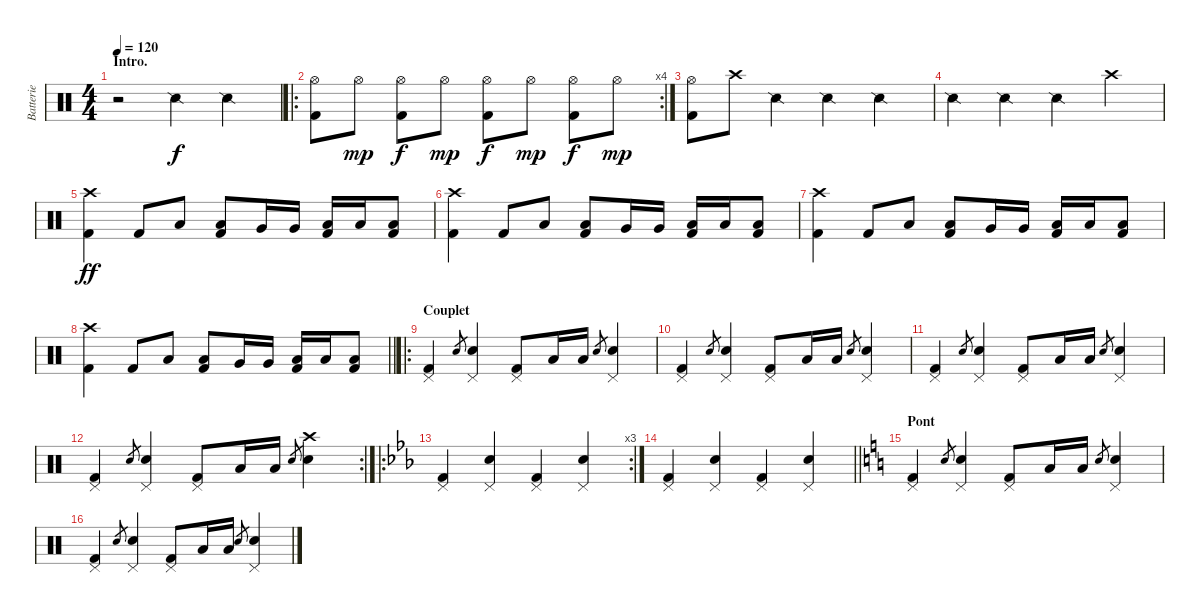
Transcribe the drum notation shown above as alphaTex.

\track ("Batterie" "Batterie") {instrument percussion}
\staff {score}
\articulation defaults
\ts (4 4)
\section ("" "Intro.")
\tempo 120
\clef neutral
\ks c
r.2{dy f} "Snare (side stick) 2".4 "Snare (side stick) 2".4 |
\ro
\rc 4
("Hi-Hat (open)" "Kick (hit) 2").8 "Hi-Hat (open)".8{dy mp} ("Hi-Hat (open)" "Kick (hit) 2").8{dy f} "Hi-Hat (open)".8{dy mp} ("Hi-Hat (open)" "Kick (hit) 2").8{dy f} "Hi-Hat (open)".8{dy mp} ("Hi-Hat (open)" "Kick (hit) 2").8{dy f} "Hi-Hat (open)".8{dy mp} |
("Hi-Hat (open)" "Kick (hit) 2").8 "Crash high (hit)".8 "Snare (side stick) 2".4 "Snare (side stick) 2".4 "Snare (side stick) 2".4 |
"Snare (side stick) 2".4 "Snare (side stick) 2".4 "Snare (side stick) 2".4 "Crash high (hit)".4 |
("Crash high (hit)" "Kick (hit) 2").4{dy ff} "Kick (hit) 2".8 "Low Tom (hit)".8 ("Low Tom (hit)" "Kick (hit) 2").8 "Very Low Tom (hit)".16 "Very Low Tom (hit)".16 ("Low Floor Tom (hit)" "Kick (hit) 2").16 "Low Floor Tom (hit)".16 ("Low Floor Tom (hit)" "Kick (hit) 2").8 |
("Crash high (hit)" "Kick (hit) 2").4 "Kick (hit) 2".8 "Low Tom (hit)".8 ("Low Tom (hit)" "Kick (hit) 2").8 "Very Low Tom (hit)".16 "Very Low Tom (hit)".16 ("Low Floor Tom (hit)" "Kick (hit) 2").16 "Low Floor Tom (hit)".16 ("Low Floor Tom (hit)" "Kick (hit) 2").8 |
("Crash high (hit)" "Kick (hit) 2").4 "Kick (hit) 2".8 "Low Tom (hit)".8 ("Low Tom (hit)" "Kick (hit) 2").8 "Very Low Tom (hit)".16 "Very Low Tom (hit)".16 ("Low Floor Tom (hit)" "Kick (hit) 2").16 "Low Floor Tom (hit)".16 ("Low Floor Tom (hit)" "Kick (hit) 2").8 |
\barLineRight lightlight
("Crash high (hit)" "Kick (hit) 2").4 "Kick (hit) 2".8 "Low Tom (hit)".8 ("Low Tom (hit)" "Kick (hit) 2").8 "Very Low Tom (hit)".16 "Very Low Tom (hit)".16 ("Low Floor Tom (hit)" "Kick (hit) 2").16 "Low Floor Tom (hit)".16 ("Low Floor Tom (hit)" "Kick (hit) 2").8 |
\ro
\section ("" "Couplet")
("Pedal Hi-Hat (hit)" "Kick (hit) 2").4 "Electric Snare (hit)".8{gr} ("Pedal Hi-Hat (hit)" "Electric Snare (hit)").4 ("Pedal Hi-Hat (hit)" "Kick (hit) 2").8 "Low Floor Tom (hit)".16 "Low Floor Tom (hit)".16 "Electric Snare (hit)".8{gr} ("Pedal Hi-Hat (hit)" "Electric Snare (hit)").4 |
("Pedal Hi-Hat (hit)" "Kick (hit) 2").4 "Electric Snare (hit)".8{gr} ("Pedal Hi-Hat (hit)" "Electric Snare (hit)").4 ("Pedal Hi-Hat (hit)" "Kick (hit) 2").8 "Low Floor Tom (hit)".16 "Low Floor Tom (hit)".16 "Electric Snare (hit)".8{gr} ("Pedal Hi-Hat (hit)" "Electric Snare (hit)").4 |
("Pedal Hi-Hat (hit)" "Kick (hit) 2").4 "Electric Snare (hit)".8{gr} ("Pedal Hi-Hat (hit)" "Electric Snare (hit)").4 ("Pedal Hi-Hat (hit)" "Kick (hit) 2").8 "Low Floor Tom (hit)".16 "Low Floor Tom (hit)".16 "Electric Snare (hit)".8{gr} ("Pedal Hi-Hat (hit)" "Electric Snare (hit)").4 |
\rc 2
("Pedal Hi-Hat (hit)" "Kick (hit) 2").4 "Electric Snare (hit)".8{gr} ("Pedal Hi-Hat (hit)" "Electric Snare (hit)").4 ("Pedal Hi-Hat (hit)" "Kick (hit) 2").8 "Low Floor Tom (hit)".16 "Low Floor Tom (hit)".16 "Electric Snare (hit)".8{gr} ("Crash high (hit)" "Electric Snare (hit)").4 |
\ro
\rc 3
\ks eb
("Pedal Hi-Hat (hit)" "Kick (hit) 2").4 ("Pedal Hi-Hat (hit)" "Electric Snare (hit)").4 ("Pedal Hi-Hat (hit)" "Kick (hit) 2").4 ("Pedal Hi-Hat (hit)" "Electric Snare (hit)").4 |
\barLineRight lightlight
("Pedal Hi-Hat (hit)" "Kick (hit) 2").4 ("Pedal Hi-Hat (hit)" "Electric Snare (hit)").4 ("Pedal Hi-Hat (hit)" "Kick (hit) 2").4 ("Pedal Hi-Hat (hit)" "Electric Snare (hit)").4 |
\section ("" "Pont")
\ks c
("Pedal Hi-Hat (hit)" "Kick (hit) 2").4 "Electric Snare (hit)".8{gr} ("Pedal Hi-Hat (hit)" "Electric Snare (hit)").4 ("Pedal Hi-Hat (hit)" "Kick (hit) 2").8 "Low Floor Tom (hit)".16 "Low Floor Tom (hit)".16 "Electric Snare (hit)".8{gr} ("Pedal Hi-Hat (hit)" "Electric Snare (hit)").4 |
("Pedal Hi-Hat (hit)" "Kick (hit) 2").4 "Electric Snare (hit)".8{gr} ("Pedal Hi-Hat (hit)" "Electric Snare (hit)").4 ("Pedal Hi-Hat (hit)" "Kick (hit) 2").8 "Low Floor Tom (hit)".16 "Low Floor Tom (hit)".16 "Electric Snare (hit)".8{gr} ("Pedal Hi-Hat (hit)" "Electric Snare (hit)").4
